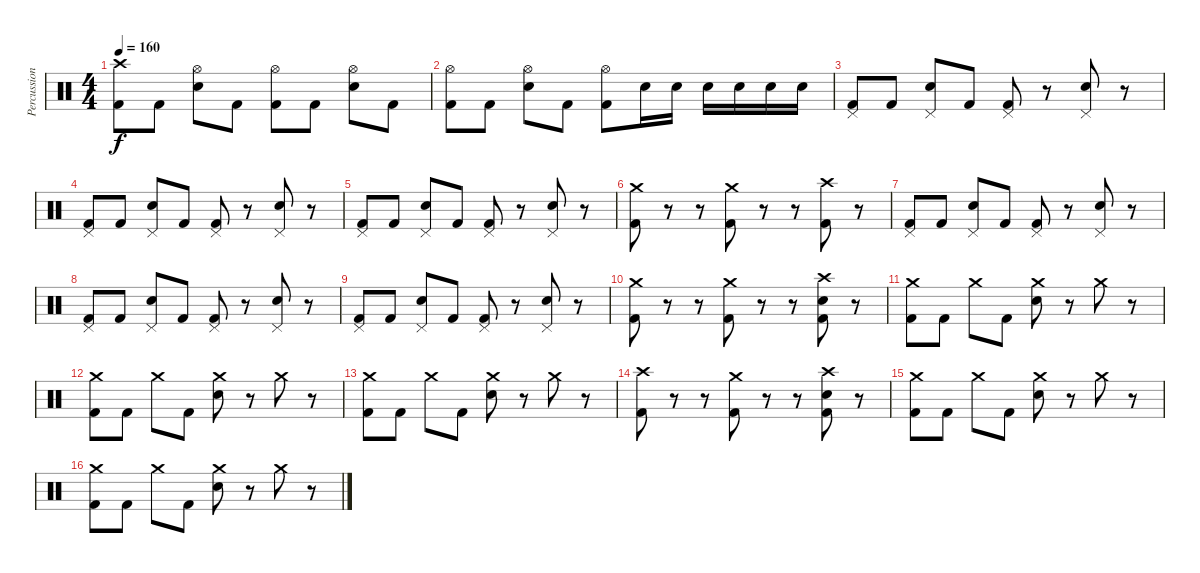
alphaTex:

\track ("Percussion" "Percussion") {instrument percussion}
\staff {score}
\articulation defaults
\ts (4 4)
\tempo 160
\clef neutral
\ks c
("Crash high (hit)" "Kick (hit) 2").8{dy f} "Kick (hit) 2".8 ("Hi-Hat (open)" "Electric Snare (hit)").8 "Kick (hit) 2".8 ("Hi-Hat (open)" "Kick (hit) 2").8 "Kick (hit) 2".8 ("Hi-Hat (open)" "Electric Snare (hit)").8 "Kick (hit) 2".8 |
("Hi-Hat (open)" "Kick (hit) 2").8 "Kick (hit) 2".8 ("Hi-Hat (open)" "Electric Snare (hit)").8 "Kick (hit) 2".8 ("Hi-Hat (open)" "Kick (hit) 2").8 "Electric Snare (hit)".16 "Electric Snare (hit)".16 "Electric Snare (hit)".16 "Electric Snare (hit)".16 "Electric Snare (hit)".16 "Electric Snare (hit)".16 |
("Pedal Hi-Hat (hit)" "Kick (hit) 2").8 "Kick (hit) 2".8 ("Pedal Hi-Hat (hit)" "Electric Snare (hit)").8 "Kick (hit) 2".8 ("Pedal Hi-Hat (hit)" "Kick (hit) 2").8 r.8 ("Pedal Hi-Hat (hit)" "Electric Snare (hit)").8 r.8 |
("Pedal Hi-Hat (hit)" "Kick (hit) 2").8 "Kick (hit) 2".8 ("Pedal Hi-Hat (hit)" "Electric Snare (hit)").8 "Kick (hit) 2".8 ("Pedal Hi-Hat (hit)" "Kick (hit) 2").8 r.8 ("Pedal Hi-Hat (hit)" "Electric Snare (hit)").8 r.8 |
("Pedal Hi-Hat (hit)" "Kick (hit) 2").8 "Kick (hit) 2".8 ("Pedal Hi-Hat (hit)" "Electric Snare (hit)").8 "Kick (hit) 2".8 ("Pedal Hi-Hat (hit)" "Kick (hit) 2").8 r.8 ("Pedal Hi-Hat (hit)" "Electric Snare (hit)").8 r.8 |
("Crash medium (hit)" "Kick (hit) 2").8 r.8 r.8 ("Crash medium (hit)" "Kick (hit) 2").8 r.8 r.8 ("Crash high (hit)" "Kick (hit) 2").8 r.8 |
("Pedal Hi-Hat (hit)" "Kick (hit) 2").8 "Kick (hit) 2".8 ("Pedal Hi-Hat (hit)" "Electric Snare (hit)").8 "Kick (hit) 2".8 ("Pedal Hi-Hat (hit)" "Kick (hit) 2").8 r.8 ("Pedal Hi-Hat (hit)" "Electric Snare (hit)").8 r.8 |
("Pedal Hi-Hat (hit)" "Kick (hit) 2").8 "Kick (hit) 2".8 ("Pedal Hi-Hat (hit)" "Electric Snare (hit)").8 "Kick (hit) 2".8 ("Pedal Hi-Hat (hit)" "Kick (hit) 2").8 r.8 ("Pedal Hi-Hat (hit)" "Electric Snare (hit)").8 r.8 |
("Pedal Hi-Hat (hit)" "Kick (hit) 2").8 "Kick (hit) 2".8 ("Pedal Hi-Hat (hit)" "Electric Snare (hit)").8 "Kick (hit) 2".8 ("Pedal Hi-Hat (hit)" "Kick (hit) 2").8 r.8 ("Pedal Hi-Hat (hit)" "Electric Snare (hit)").8 r.8 |
("Crash medium (hit)" "Kick (hit) 2").8 r.8 r.8 ("Crash medium (hit)" "Kick (hit) 2").8 r.8 r.8 ("Crash high (hit)" "Electric Snare (hit)" "Kick (hit) 2").8 r.8 |
("Crash medium (hit)" "Kick (hit) 2").8 "Kick (hit) 2".8 "Crash medium (hit)".8 "Kick (hit) 2".8 ("Crash medium (hit)" "Electric Snare (hit)").8 r.8 "Crash medium (hit)".8 r.8 |
("Crash medium (hit)" "Kick (hit) 2").8 "Kick (hit) 2".8 "Crash medium (hit)".8 "Kick (hit) 2".8 ("Crash medium (hit)" "Electric Snare (hit)").8 r.8 "Crash medium (hit)".8 r.8 |
("Crash medium (hit)" "Kick (hit) 2").8 "Kick (hit) 2".8 "Crash medium (hit)".8 "Kick (hit) 2".8 ("Crash medium (hit)" "Electric Snare (hit)").8 r.8 "Crash medium (hit)".8 r.8 |
("Crash high (hit)" "Kick (hit) 2").8 r.8 r.8 ("Crash medium (hit)" "Kick (hit) 2").8 r.8 r.8 ("Crash high (hit)" "Electric Snare (hit)" "Kick (hit) 2").8 r.8 |
("Crash medium (hit)" "Kick (hit) 2").8 "Kick (hit) 2".8 "Crash medium (hit)".8 "Kick (hit) 2".8 ("Crash medium (hit)" "Electric Snare (hit)").8 r.8 "Crash medium (hit)".8 r.8 |
("Crash medium (hit)" "Kick (hit) 2").8 "Kick (hit) 2".8 "Crash medium (hit)".8 "Kick (hit) 2".8 ("Crash medium (hit)" "Electric Snare (hit)").8 r.8 "Crash medium (hit)".8 r.8
